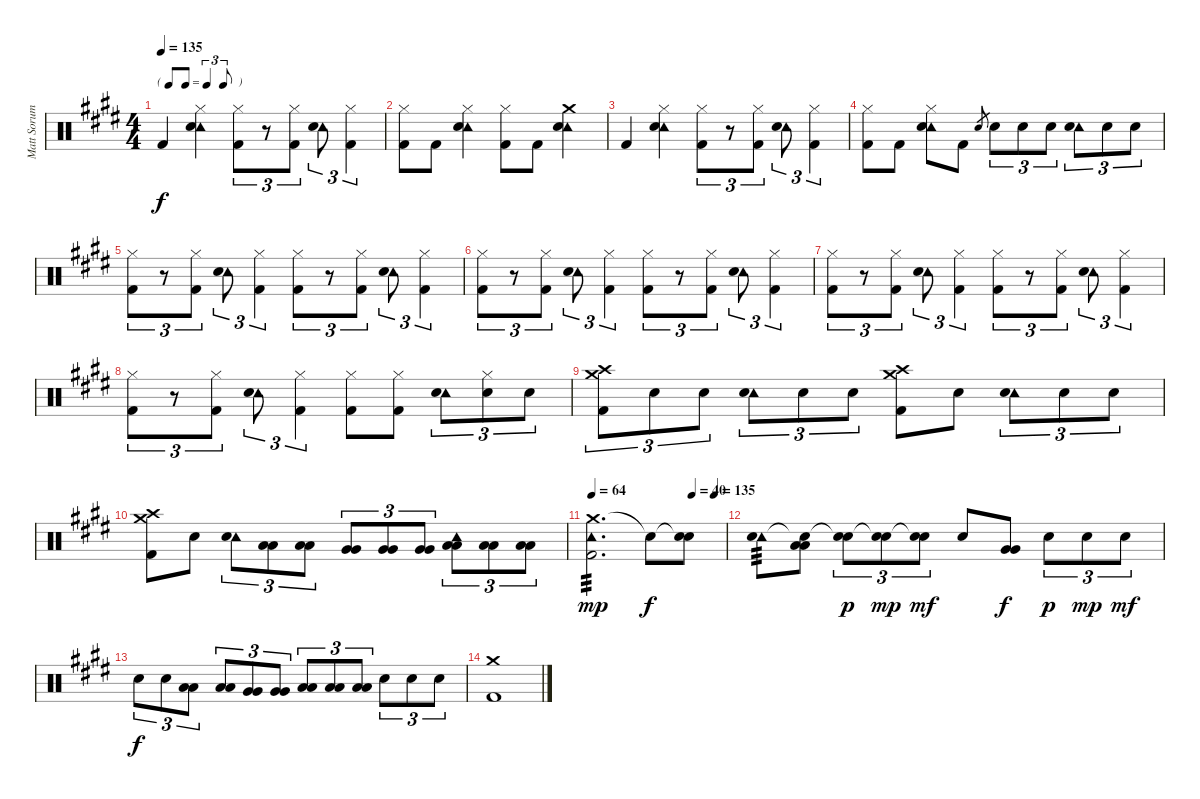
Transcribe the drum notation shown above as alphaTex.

\track ("Matt Sorum - Drums" "Matt Sorum") {instrument percussion}
\staff {score}
\articulation defaults
\ts (4 4)
\tf triplet8th
\tempo 135
\clef neutral
\ks e "Kick (hit) 2".4{dy f}
("Hi-Hat (closed)" "Tambourine (hit)" "Snare (hit) 2").4 ("Hi-Hat (closed)" "Kick (hit) 2").8{tu (3 2)} r.8{tu (3 2)} ("Hi-Hat (closed)" "Kick (hit) 2").8{tu (3 2)} ("Tambourine (hit)" "Snare (hit) 2").8{tu (3 2)} ("Hi-Hat (closed)" "Kick (hit) 2").4{tu (3 2)} |
("Hi-Hat (closed)" "Kick (hit) 2").8 "Kick (hit) 2".8 ("Hi-Hat (closed)" "Tambourine (hit)" "Snare (hit) 2").4 ("Hi-Hat (closed)" "Kick (hit) 2").8 "Kick (hit) 2".8 ("Crash medium (hit)" "Tambourine (hit)" "Snare (hit) 2").4 |
"Kick (hit) 2".4 ("Hi-Hat (closed)" "Tambourine (hit)" "Snare (hit) 2").4 ("Hi-Hat (closed)" "Kick (hit) 2").8{tu (3 2)} r.8{tu (3 2)} ("Hi-Hat (closed)" "Kick (hit) 2").8{tu (3 2)} ("Tambourine (hit)" "Snare (hit) 2").8{tu (3 2)} ("Hi-Hat (closed)" "Kick (hit) 2").4{tu (3 2)} |
("Hi-Hat (closed)" "Kick (hit) 2").8 "Kick (hit) 2".8 ("Hi-Hat (closed)" "Tambourine (hit)" "Snare (hit) 2").8 "Kick (hit) 2".8 "Snare (hit) 2".8{gr} "Snare (hit) 2".8{tu (3 2)} "Snare (hit) 2".8{tu (3 2)} "Snare (hit) 2".8{tu (3 2)} ("Tambourine (hit)" "Snare (hit) 2").8{tu (3 2)} "Snare (hit) 2".8{tu (3 2)} "Snare (hit) 2".8{tu (3 2)} |
("Hi-Hat (closed)" "Kick (hit) 2").8{tu (3 2)} r.8{tu (3 2)} ("Hi-Hat (closed)" "Kick (hit) 2").8{tu (3 2)} ("Tambourine (hit)" "Snare (hit) 2").8{tu (3 2)} ("Hi-Hat (closed)" "Kick (hit) 2").4{tu (3 2)} ("Hi-Hat (closed)" "Kick (hit) 2").8{tu (3 2)} r.8{tu (3 2)} ("Hi-Hat (closed)" "Kick (hit) 2").8{tu (3 2)} ("Tambourine (hit)" "Snare (hit) 2").8{tu (3 2)} ("Hi-Hat (closed)" "Kick (hit) 2").4{tu (3 2)} |
("Hi-Hat (closed)" "Kick (hit) 2").8{tu (3 2)} r.8{tu (3 2)} ("Hi-Hat (closed)" "Kick (hit) 2").8{tu (3 2)} ("Tambourine (hit)" "Snare (hit) 2").8{tu (3 2)} ("Hi-Hat (closed)" "Kick (hit) 2").4{tu (3 2)} ("Hi-Hat (closed)" "Kick (hit) 2").8{tu (3 2)} r.8{tu (3 2)} ("Hi-Hat (closed)" "Kick (hit) 2").8{tu (3 2)} ("Tambourine (hit)" "Snare (hit) 2").8{tu (3 2)} ("Hi-Hat (closed)" "Kick (hit) 2").4{tu (3 2)} |
("Hi-Hat (closed)" "Kick (hit) 2").8{tu (3 2)} r.8{tu (3 2)} ("Hi-Hat (closed)" "Kick (hit) 2").8{tu (3 2)} ("Tambourine (hit)" "Snare (hit) 2").8{tu (3 2)} ("Hi-Hat (closed)" "Kick (hit) 2").4{tu (3 2)} ("Hi-Hat (closed)" "Kick (hit) 2").8{tu (3 2)} r.8{tu (3 2)} ("Hi-Hat (closed)" "Kick (hit) 2").8{tu (3 2)} ("Tambourine (hit)" "Snare (hit) 2").8{tu (3 2)} ("Hi-Hat (closed)" "Kick (hit) 2").4{tu (3 2)} |
("Hi-Hat (closed)" "Kick (hit) 2").8{tu (3 2)} r.8{tu (3 2)} ("Hi-Hat (closed)" "Kick (hit) 2").8{tu (3 2)} ("Tambourine (hit)" "Snare (hit) 2").8{tu (3 2)} ("Hi-Hat (closed)" "Kick (hit) 2").4{tu (3 2)} ("Hi-Hat (closed)" "Kick (hit) 2").8 ("Hi-Hat (closed)" "Kick (hit) 2").8 ("Tambourine (hit)" "Snare (hit) 2").8{tu (3 2)} ("Hi-Hat (closed)" "Snare (hit) 2").8{tu (3 2)} "Snare (hit) 2".8{tu (3 2)} |
("Crash medium (hit)" "Crash high (hit)" "Kick (hit) 2").8{tu (3 2)} "Snare (hit) 2".8{tu (3 2)} "Snare (hit) 2".8{tu (3 2)} ("Tambourine (hit)" "Snare (hit) 2").8{tu (3 2)} "Snare (hit) 2".8{tu (3 2)} "Snare (hit) 2".8{tu (3 2)} ("Crash medium (hit)" "Crash high (hit)" "Kick (hit) 2").8 "Snare (hit) 2".8 ("Tambourine (hit)" "Snare (hit) 2").8{tu (3 2)} "Snare (hit) 2".8{tu (3 2)} "Snare (hit) 2".8{tu (3 2)} |
("Crash medium (hit)" "Crash high (hit)" "Kick (hit) 2").8 "Snare (hit) 2".8 ("Tambourine (hit)" "Snare (hit) 2").8{tu (3 2)} ("Low Tom (hit)" "Low Tom (hit)").8{tu (3 2)} ("Low Tom (hit)" "Low Tom (hit)").8{tu (3 2)} ("Very Low Tom (hit)" "Very Low Tom (hit)").8{tu (3 2)} ("Very Low Tom (hit)" "Very Low Tom (hit)").8{tu (3 2)} ("Very Low Tom (hit)" "Very Low Tom (hit)").8{tu (3 2)} ("Tambourine (hit)" "Low Floor Tom (hit)" "Low Floor Tom (hit)").8{tu (3 2)} ("Low Floor Tom (hit)" "Low Floor Tom (hit)").8{tu (3 2)} ("Low Floor Tom (hit)" "Low Floor Tom (hit)").8{tu (3 2)} |
\tempo 64
\tempo (40 0.75)
\tempo (135 0.9166666666666666)
("Crash medium (hit)" "Tambourine (hit)" "Kick (hit) 2").2{d tp 3 dy mp} "Snare (hit)"{t}.8{dy f} ("Snare (hit)"{t} "Snare (hit) 2").8 |
("Tambourine (hit)" "Snare (hit) 2").8{tp 3} ("Snare (hit)"{t} "Low Tom (hit)" "Low Tom (hit)").8 ("Snare (hit)"{t} "Snare (hit) 2").8{tu (3 2) dy p} ("Snare (hit)"{t} "Snare (hit) 2").8{tu (3 2) dy mp} ("Snare (hit)"{t} "Snare (hit) 2").8{tu (3 2) dy mf} "Snare (hit) 2".8 ("Very Low Tom (hit)" "Very Low Tom (hit)").8{dy f} "Snare (hit) 2".8{tu (3 2) dy p} "Snare (hit) 2".8{tu (3 2) dy mp} "Snare (hit) 2".8{tu (3 2) dy mf} |
"Snare (hit) 2".8{tu (3 2) dy f} "Snare (hit) 2".8{tu (3 2)} ("Low Tom (hit)" "Low Tom (hit)").8{tu (3 2)} ("Low Tom (hit)" "Low Tom (hit)").8{tu (3 2)} ("Very Low Tom (hit)" "Very Low Tom (hit)").8{tu (3 2)} ("Very Low Tom (hit)" "Very Low Tom (hit)").8{tu (3 2)} ("Low Floor Tom (hit)" "Low Floor Tom (hit)").8{tu (3 2)} ("Low Floor Tom (hit)" "Low Floor Tom (hit)").8{tu (3 2)} ("Low Floor Tom (hit)" "Low Floor Tom (hit)").8{tu (3 2)} "Snare (hit) 2".8{tu (3 2)} "Snare (hit) 2".8{tu (3 2)} "Snare (hit) 2".8{tu (3 2)} |
("Crash medium (hit)" "Kick (hit) 2").1
